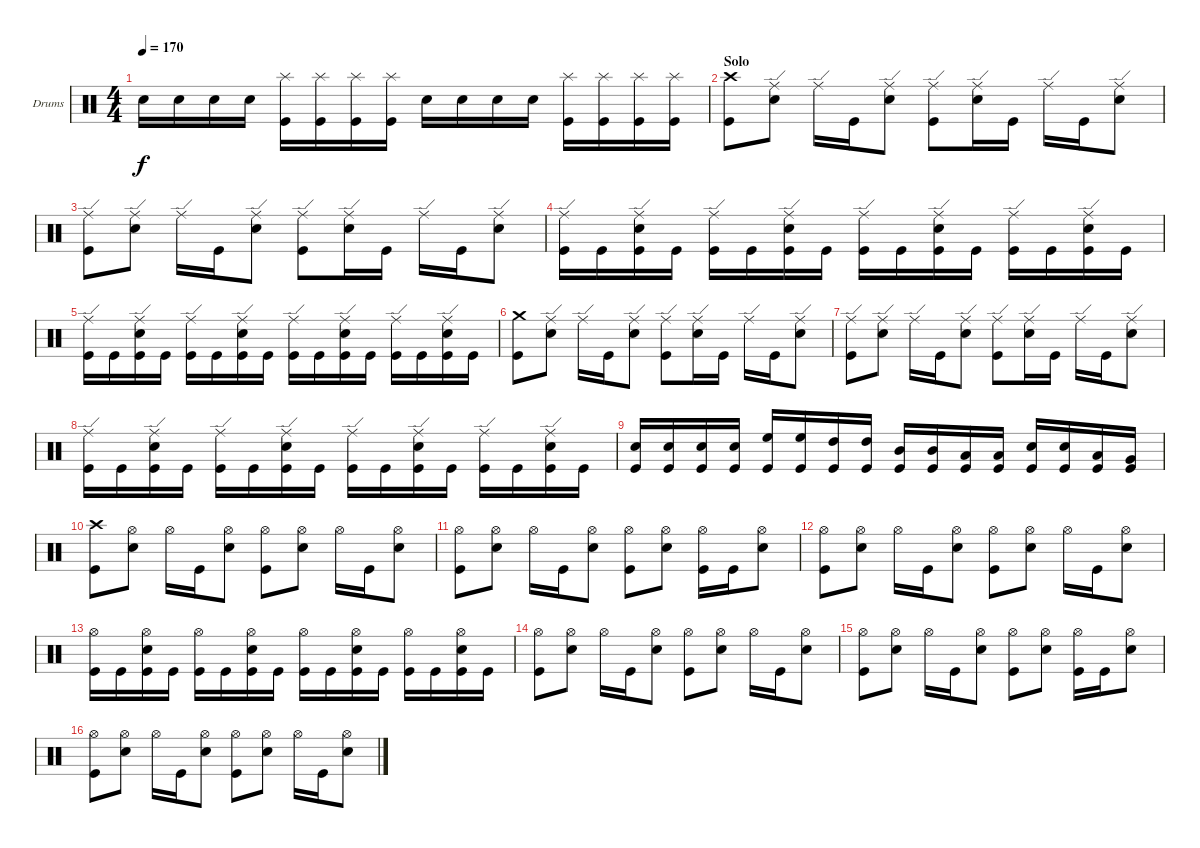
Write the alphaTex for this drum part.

\bracketExtendMode groupsimilarinstruments
\firstSystemTrackNameOrientation horizontal
\otherSystemsTrackNameOrientation horizontal
\track ("Drumkit" "Drums") {instrument percussion}
\staff {score}
\articulation defaults
\ts (4 4)
\tempo 170
\clef neutral
\ks aminor "Snare (hit) 2".16{dy f} "Snare (hit) 2".16 "Snare (hit) 2".16 "Snare (hit) 2".16
("Kick (hit)" "Splash (hit)").16 ("Kick (hit)" "Splash (hit)").16 ("Kick (hit)" "Splash (hit)").16 ("Kick (hit)" "Splash (hit)").16 "Snare (hit) 2".16 "Snare (hit) 2".16 "Snare (hit) 2".16 "Snare (hit) 2".16 ("Kick (hit)" "Splash (hit)").16 ("Kick (hit)" "Splash (hit)").16 ("Kick (hit)" "Splash (hit)").16 ("Kick (hit)" "Splash (hit)").16 |
\section ("" "Solo")
("Kick (hit)" "Crash high (hit)").8 ("Snare (hit) 2" "Ride (edge)").8 "Ride (edge)".16 "Kick (hit)".16 ("Snare (hit) 2" "Ride (edge)").8 ("Kick (hit)" "Ride (edge)").8 ("Snare (hit) 2" "Ride (edge)").16 "Kick (hit)".16 "Ride (edge)".16 "Kick (hit)".16 ("Snare (hit) 2" "Ride (edge)").8 |
("Kick (hit)" "Ride (edge)").8 ("Snare (hit) 2" "Ride (edge)").8 "Ride (edge)".16 "Kick (hit)".16 ("Snare (hit) 2" "Ride (edge)").8 ("Kick (hit)" "Ride (edge)").8 ("Snare (hit) 2" "Ride (edge)").16 "Kick (hit)".16 "Ride (edge)".16 "Kick (hit)".16 ("Snare (hit) 2" "Ride (edge)").8 |
("Kick (hit)" "Ride (edge)").16 "Kick (hit)".16 ("Kick (hit)" "Snare (hit) 2" "Ride (edge)").16 "Kick (hit)".16 ("Kick (hit)" "Ride (edge)").16 "Kick (hit)".16 ("Kick (hit)" "Snare (hit) 2" "Ride (edge)").16 "Kick (hit)".16 ("Kick (hit)" "Ride (edge)").16 "Kick (hit)".16 ("Kick (hit)" "Snare (hit) 2" "Ride (edge)").16 "Kick (hit)".16 ("Kick (hit)" "Ride (edge)").16 "Kick (hit)".16 ("Kick (hit)" "Snare (hit) 2" "Ride (edge)").16 "Kick (hit)".16 |
("Kick (hit)" "Ride (edge)").16 "Kick (hit)".16 ("Kick (hit)" "Snare (hit) 2" "Ride (edge)").16 "Kick (hit)".16 ("Kick (hit)" "Ride (edge)").16 "Kick (hit)".16 ("Kick (hit)" "Snare (hit) 2" "Ride (edge)").16 "Kick (hit)".16 ("Kick (hit)" "Ride (edge)").16 "Kick (hit)".16 ("Kick (hit)" "Snare (hit) 2" "Ride (edge)").16 "Kick (hit)".16 ("Kick (hit)" "Ride (edge)").16 "Kick (hit)".16 ("Kick (hit)" "Snare (hit) 2" "Ride (edge)").16 "Kick (hit)".16 |
("Kick (hit)" "Crash medium (hit)").8 ("Snare (hit) 2" "Ride (edge)").8 "Ride (edge)".16 "Kick (hit)".16 ("Snare (hit) 2" "Ride (edge)").8 ("Kick (hit)" "Ride (edge)").8 ("Snare (hit) 2" "Ride (edge)").16 "Kick (hit)".16 "Ride (edge)".16 "Kick (hit)".16 ("Snare (hit) 2" "Ride (edge)").8 |
("Kick (hit)" "Ride (edge)").8 ("Snare (hit) 2" "Ride (edge)").8 "Ride (edge)".16 "Kick (hit)".16 ("Snare (hit) 2" "Ride (edge)").8 ("Kick (hit)" "Ride (edge)").8 ("Snare (hit) 2" "Ride (edge)").16 "Kick (hit)".16 "Ride (edge)".16 "Kick (hit)".16 ("Snare (hit) 2" "Ride (edge)").8 |
("Kick (hit)" "Ride (edge)").16 "Kick (hit)".16 ("Kick (hit)" "Snare (hit) 2" "Ride (edge)").16 "Kick (hit)".16 ("Kick (hit)" "Ride (edge)").16 "Kick (hit)".16 ("Kick (hit)" "Snare (hit) 2" "Ride (edge)").16 "Kick (hit)".16 ("Kick (hit)" "Ride (edge)").16 "Kick (hit)".16 ("Kick (hit)" "Snare (hit) 2" "Ride (edge)").16 "Kick (hit)".16 ("Kick (hit)" "Ride (edge)").16 "Kick (hit)".16 ("Kick (hit)" "Snare (hit) 2" "Ride (edge)").16 "Kick (hit)".16 |
("Kick (hit)" "Snare (hit) 2").16 ("Kick (hit)" "Snare (hit) 2").16 ("Kick (hit)" "Snare (hit) 2").16 ("Kick (hit)" "Snare (hit) 2").16 ("Kick (hit)" "High Floor Tom (hit)").16 ("Kick (hit)" "High Floor Tom (hit)").16 ("Kick (hit)" "High Tom (hit)").16 ("Kick (hit)" "High Tom (hit)").16 ("Kick (hit)" "Mid Tom (hit)").16 ("Kick (hit)" "Mid Tom (hit)").16 ("Kick (hit)" "Low Tom (hit)").16 ("Kick (hit)" "Low Tom (hit)").16 ("Kick (hit)" "Snare (hit) 2").16 ("Kick (hit)" "Snare (hit) 2").16 ("Kick (hit)" "Low Tom (hit)").16 ("Kick (hit)" "Very Low Tom (hit)").16 |
\section ("" "")
("Kick (hit)" "Crash high (hit)").8 ("Snare (hit) 2" "Hi-Hat (open)").8 "Hi-Hat (open)".16 "Kick (hit)".16 ("Snare (hit) 2" "Hi-Hat (open)").8 ("Kick (hit)" "Hi-Hat (open)").8 ("Snare (hit) 2" "Hi-Hat (open)").8 "Hi-Hat (open)".16 "Kick (hit)".16 ("Snare (hit) 2" "Hi-Hat (open)").8 |
("Kick (hit)" "Hi-Hat (open)").8 ("Snare (hit) 2" "Hi-Hat (open)").8 "Hi-Hat (open)".16 "Kick (hit)".16 ("Snare (hit) 2" "Hi-Hat (open)").8 ("Kick (hit)" "Hi-Hat (open)").8 ("Snare (hit) 2" "Hi-Hat (open)").8 ("Kick (hit)" "Hi-Hat (open)").16 "Kick (hit)".16 ("Snare (hit) 2" "Hi-Hat (open)").8 |
("Kick (hit)" "Hi-Hat (open)").8 ("Snare (hit) 2" "Hi-Hat (open)").8 "Hi-Hat (open)".16 "Kick (hit)".16 ("Snare (hit) 2" "Hi-Hat (open)").8 ("Kick (hit)" "Hi-Hat (open)").8 ("Snare (hit) 2" "Hi-Hat (open)").8 "Hi-Hat (open)".16 "Kick (hit)".16 ("Snare (hit) 2" "Hi-Hat (open)").8 |
("Kick (hit)" "Hi-Hat (open)").16 "Kick (hit)".16 ("Kick (hit)" "Snare (hit) 2" "Hi-Hat (open)").16 "Kick (hit)".16 ("Kick (hit)" "Hi-Hat (open)").16 "Kick (hit)".16 ("Kick (hit)" "Snare (hit) 2" "Hi-Hat (open)").16 "Kick (hit)".16 ("Kick (hit)" "Hi-Hat (open)").16 "Kick (hit)".16 ("Kick (hit)" "Snare (hit) 2" "Hi-Hat (open)").16 "Kick (hit)".16 ("Kick (hit)" "Hi-Hat (open)").16 "Kick (hit)".16 ("Kick (hit)" "Snare (hit) 2" "Hi-Hat (open)").16 "Kick (hit)".16 |
("Kick (hit)" "Hi-Hat (open)").8 ("Snare (hit) 2" "Hi-Hat (open)").8 "Hi-Hat (open)".16 "Kick (hit)".16 ("Snare (hit) 2" "Hi-Hat (open)").8 ("Kick (hit)" "Hi-Hat (open)").8 ("Snare (hit) 2" "Hi-Hat (open)").8 "Hi-Hat (open)".16 "Kick (hit)".16 ("Snare (hit) 2" "Hi-Hat (open)").8 |
("Kick (hit)" "Hi-Hat (open)").8 ("Snare (hit) 2" "Hi-Hat (open)").8 "Hi-Hat (open)".16 "Kick (hit)".16 ("Snare (hit) 2" "Hi-Hat (open)").8 ("Kick (hit)" "Hi-Hat (open)").8 ("Snare (hit) 2" "Hi-Hat (open)").8 ("Kick (hit)" "Hi-Hat (open)").16 "Kick (hit)".16 ("Snare (hit) 2" "Hi-Hat (open)").8 |
("Kick (hit)" "Hi-Hat (open)").8 ("Snare (hit) 2" "Hi-Hat (open)").8 "Hi-Hat (open)".16 "Kick (hit)".16 ("Snare (hit) 2" "Hi-Hat (open)").8 ("Kick (hit)" "Hi-Hat (open)").8 ("Snare (hit) 2" "Hi-Hat (open)").8 "Hi-Hat (open)".16 "Kick (hit)".16 ("Snare (hit) 2" "Hi-Hat (open)").8
